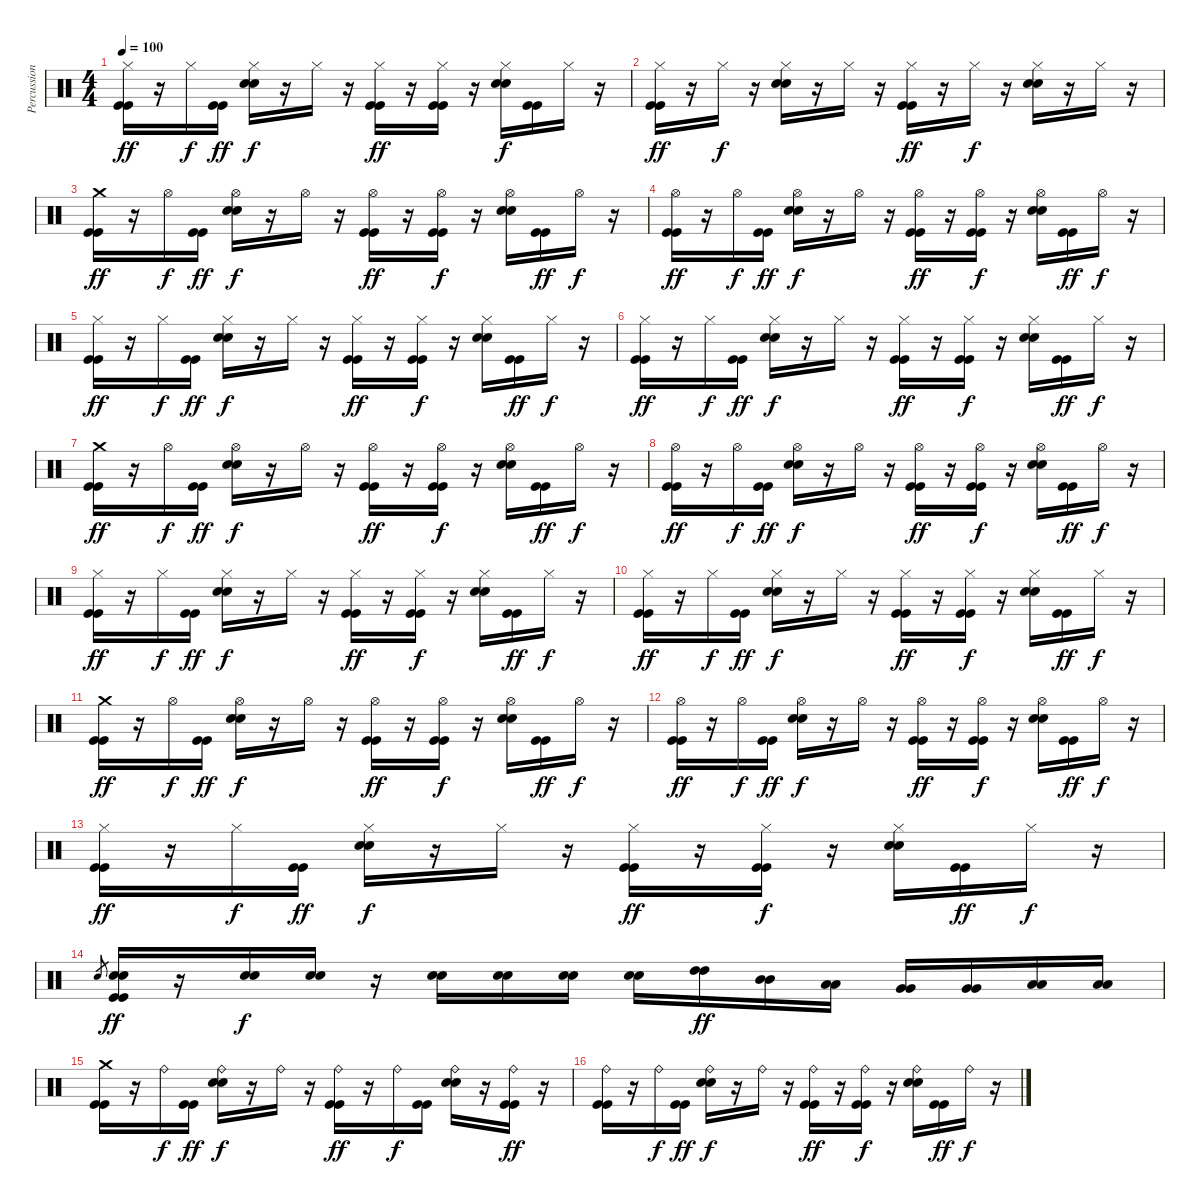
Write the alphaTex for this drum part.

\track ("Percussions" "Percussion") {instrument percussion}
\staff {score}
\articulation defaults
\ts (4 4)
\tempo 100
\clef neutral
\ks c
("Hi-Hat (closed)" "Kick (hit)" "Kick (hit)").16{dy ff} r.16 "Hi-Hat (closed)".16{dy f} ("Kick (hit)" "Kick (hit)").16{dy ff} ("Hi-Hat (closed)" "Electric Snare (hit)" "Electric Snare (hit)").16{dy f} r.16 "Hi-Hat (closed)".16 r.16 ("Hi-Hat (closed)" "Kick (hit)" "Kick (hit)").16{dy ff} r.16 ("Hi-Hat (closed)" "Kick (hit)" "Kick (hit)").16 r.16 ("Hi-Hat (closed)" "Electric Snare (hit)" "Electric Snare (hit)").16{dy f} ("Kick (hit)" "Kick (hit)").16 "Hi-Hat (closed)".16 r.16 |
("Hi-Hat (closed)" "Kick (hit)" "Kick (hit)").16{dy ff} r.16 "Hi-Hat (closed)".16{dy f} r.16 ("Hi-Hat (closed)" "Electric Snare (hit)" "Electric Snare (hit)").16 r.16 "Hi-Hat (closed)".16 r.16 ("Hi-Hat (closed)" "Kick (hit)" "Kick (hit)").16{dy ff} r.16 "Hi-Hat (closed)".16{dy f} r.16 ("Hi-Hat (closed)" "Electric Snare (hit)" "Electric Snare (hit)").16 r.16 "Hi-Hat (closed)".16 r.16 |
("Crash medium (hit)" "Kick (hit)" "Kick (hit)").16{dy ff} r.16 "Hi-Hat (open)".16{dy f} ("Kick (hit)" "Kick (hit)").16{dy ff} ("Hi-Hat (open)" "Electric Snare (hit)" "Electric Snare (hit)").16{dy f} r.16 "Hi-Hat (open)".16 r.16 ("Hi-Hat (open)" "Kick (hit)" "Kick (hit)").16{dy ff} r.16 ("Hi-Hat (open)" "Kick (hit)" "Kick (hit)").16{dy f} r.16 ("Hi-Hat (open)" "Electric Snare (hit)" "Electric Snare (hit)").16 ("Kick (hit)" "Kick (hit)").16{dy ff} "Hi-Hat (open)".16{dy f} r.16 |
("Hi-Hat (open)" "Kick (hit)" "Kick (hit)").16{dy ff} r.16 "Hi-Hat (open)".16{dy f} ("Kick (hit)" "Kick (hit)").16{dy ff} ("Hi-Hat (open)" "Electric Snare (hit)" "Electric Snare (hit)").16{dy f} r.16 "Hi-Hat (open)".16 r.16 ("Hi-Hat (open)" "Kick (hit)" "Kick (hit)").16{dy ff} r.16 ("Hi-Hat (open)" "Kick (hit)" "Kick (hit)").16{dy f} r.16 ("Hi-Hat (open)" "Electric Snare (hit)" "Electric Snare (hit)").16 ("Kick (hit)" "Kick (hit)").16{dy ff} "Hi-Hat (open)".16{dy f} r.16 |
("Hi-Hat (closed)" "Kick (hit)" "Kick (hit)").16{dy ff} r.16 "Hi-Hat (closed)".16{dy f} ("Kick (hit)" "Kick (hit)").16{dy ff} ("Hi-Hat (closed)" "Electric Snare (hit)" "Electric Snare (hit)").16{dy f} r.16 "Hi-Hat (closed)".16 r.16 ("Hi-Hat (closed)" "Kick (hit)" "Kick (hit)").16{dy ff} r.16 ("Hi-Hat (closed)" "Kick (hit)" "Kick (hit)").16{dy f} r.16 ("Hi-Hat (closed)" "Electric Snare (hit)" "Electric Snare (hit)").16 ("Kick (hit)" "Kick (hit)").16{dy ff} "Hi-Hat (closed)".16{dy f} r.16 |
("Hi-Hat (closed)" "Kick (hit)" "Kick (hit)").16{dy ff} r.16 "Hi-Hat (closed)".16{dy f} ("Kick (hit)" "Kick (hit)").16{dy ff} ("Hi-Hat (closed)" "Electric Snare (hit)" "Electric Snare (hit)").16{dy f} r.16 "Hi-Hat (closed)".16 r.16 ("Hi-Hat (closed)" "Kick (hit)" "Kick (hit)").16{dy ff} r.16 ("Hi-Hat (closed)" "Kick (hit)" "Kick (hit)").16{dy f} r.16 ("Hi-Hat (closed)" "Electric Snare (hit)" "Electric Snare (hit)").16 ("Kick (hit)" "Kick (hit)").16{dy ff} "Hi-Hat (closed)".16{dy f} r.16 |
("Crash medium (hit)" "Kick (hit)" "Kick (hit)").16{dy ff} r.16 "Hi-Hat (open)".16{dy f} ("Kick (hit)" "Kick (hit)").16{dy ff} ("Hi-Hat (open)" "Electric Snare (hit)" "Electric Snare (hit)").16{dy f} r.16 "Hi-Hat (open)".16 r.16 ("Hi-Hat (open)" "Kick (hit)" "Kick (hit)").16{dy ff} r.16 ("Hi-Hat (open)" "Kick (hit)" "Kick (hit)").16{dy f} r.16 ("Hi-Hat (open)" "Electric Snare (hit)" "Electric Snare (hit)").16 ("Kick (hit)" "Kick (hit)").16{dy ff} "Hi-Hat (open)".16{dy f} r.16 |
("Hi-Hat (open)" "Kick (hit)" "Kick (hit)").16{dy ff} r.16 "Hi-Hat (open)".16{dy f} ("Kick (hit)" "Kick (hit)").16{dy ff} ("Hi-Hat (open)" "Electric Snare (hit)" "Electric Snare (hit)").16{dy f} r.16 "Hi-Hat (open)".16 r.16 ("Hi-Hat (open)" "Kick (hit)" "Kick (hit)").16{dy ff} r.16 ("Hi-Hat (open)" "Kick (hit)" "Kick (hit)").16{dy f} r.16 ("Hi-Hat (open)" "Electric Snare (hit)" "Electric Snare (hit)").16 ("Kick (hit)" "Kick (hit)").16{dy ff} "Hi-Hat (open)".16{dy f} r.16 |
("Hi-Hat (closed)" "Kick (hit)" "Kick (hit)").16{dy ff} r.16 "Hi-Hat (closed)".16{dy f} ("Kick (hit)" "Kick (hit)").16{dy ff} ("Hi-Hat (closed)" "Electric Snare (hit)" "Electric Snare (hit)").16{dy f} r.16 "Hi-Hat (closed)".16 r.16 ("Hi-Hat (closed)" "Kick (hit)" "Kick (hit)").16{dy ff} r.16 ("Hi-Hat (closed)" "Kick (hit)" "Kick (hit)").16{dy f} r.16 ("Hi-Hat (closed)" "Electric Snare (hit)" "Electric Snare (hit)").16 ("Kick (hit)" "Kick (hit)").16{dy ff} "Hi-Hat (closed)".16{dy f} r.16 |
("Hi-Hat (closed)" "Kick (hit)" "Kick (hit)").16{dy ff} r.16 "Hi-Hat (closed)".16{dy f} ("Kick (hit)" "Kick (hit)").16{dy ff} ("Hi-Hat (closed)" "Electric Snare (hit)" "Electric Snare (hit)").16{dy f} r.16 "Hi-Hat (closed)".16 r.16 ("Hi-Hat (closed)" "Kick (hit)" "Kick (hit)").16{dy ff} r.16 ("Hi-Hat (closed)" "Kick (hit)" "Kick (hit)").16{dy f} r.16 ("Hi-Hat (closed)" "Electric Snare (hit)" "Electric Snare (hit)").16 ("Kick (hit)" "Kick (hit)").16{dy ff} "Hi-Hat (closed)".16{dy f} r.16 |
("Crash medium (hit)" "Kick (hit)" "Kick (hit)").16{dy ff} r.16 "Hi-Hat (open)".16{dy f} ("Kick (hit)" "Kick (hit)").16{dy ff} ("Hi-Hat (open)" "Electric Snare (hit)" "Electric Snare (hit)").16{dy f} r.16 "Hi-Hat (open)".16 r.16 ("Hi-Hat (open)" "Kick (hit)" "Kick (hit)").16{dy ff} r.16 ("Hi-Hat (open)" "Kick (hit)" "Kick (hit)").16{dy f} r.16 ("Hi-Hat (open)" "Electric Snare (hit)" "Electric Snare (hit)").16 ("Kick (hit)" "Kick (hit)").16{dy ff} "Hi-Hat (open)".16{dy f} r.16 |
("Hi-Hat (open)" "Kick (hit)" "Kick (hit)").16{dy ff} r.16 "Hi-Hat (open)".16{dy f} ("Kick (hit)" "Kick (hit)").16{dy ff} ("Hi-Hat (open)" "Electric Snare (hit)" "Electric Snare (hit)").16{dy f} r.16 "Hi-Hat (open)".16 r.16 ("Hi-Hat (open)" "Kick (hit)" "Kick (hit)").16{dy ff} r.16 ("Hi-Hat (open)" "Kick (hit)" "Kick (hit)").16{dy f} r.16 ("Hi-Hat (open)" "Electric Snare (hit)" "Electric Snare (hit)").16 ("Kick (hit)" "Kick (hit)").16{dy ff} "Hi-Hat (open)".16{dy f} r.16 |
("Hi-Hat (closed)" "Kick (hit)" "Kick (hit)").16{dy ff} r.16 "Hi-Hat (closed)".16{dy f} ("Kick (hit)" "Kick (hit)").16{dy ff} ("Hi-Hat (closed)" "Electric Snare (hit)" "Electric Snare (hit)").16{dy f} r.16 "Hi-Hat (closed)".16 r.16 ("Hi-Hat (closed)" "Kick (hit)" "Kick (hit)").16{dy ff} r.16 ("Hi-Hat (closed)" "Kick (hit)" "Kick (hit)").16{dy f} r.16 ("Hi-Hat (closed)" "Electric Snare (hit)" "Electric Snare (hit)").16 ("Kick (hit)" "Kick (hit)").16{dy ff} "Hi-Hat (closed)".16{dy f} r.16 |
"Electric Snare (hit)".8{gr} ("Electric Snare (hit)" "Electric Snare (hit)" "Kick (hit)" "Kick (hit)").16{dy ff} r.16 ("Electric Snare (hit)" "Electric Snare (hit)").16{dy f} ("Electric Snare (hit)" "Electric Snare (hit)").16 r.16 ("Electric Snare (hit)" "Electric Snare (hit)").16 ("Electric Snare (hit)" "Electric Snare (hit)").16 ("Electric Snare (hit)" "Electric Snare (hit)").16 ("Electric Snare (hit)" "Electric Snare (hit)").16 ("High Tom (hit)" "High Tom (hit)").16{dy ff} ("Mid Tom (hit)" "Mid Tom (hit)").16 ("Low Tom (hit)" "Low Tom (hit)").16 ("Very Low Tom (hit)" "Very Low Tom (hit)").16 ("Very Low Tom (hit)" "Very Low Tom (hit)").16 ("Low Floor Tom (hit)" "Low Floor Tom (hit)").16 ("Low Floor Tom (hit)" "Low Floor Tom (hit)").16 |
("Crash medium (hit)" "Kick (hit)" "Kick (hit)").16 r.16 "Ride (bell)".16{dy f} ("Kick (hit)" "Kick (hit)").16{dy ff} ("Ride (bell)" "Electric Snare (hit)" "Electric Snare (hit)").16{dy f} r.16 "Ride (bell)".16 r.16 ("Ride (bell)" "Kick (hit)" "Kick (hit)").16{dy ff} r.16 "Ride (bell)".16{dy f} ("Kick (hit)" "Kick (hit)").16 ("Ride (bell)" "Electric Snare (hit)" "Electric Snare (hit)").16 r.16 ("Ride (bell)" "Kick (hit)" "Kick (hit)").16{dy ff} r.16 |
("Ride (bell)" "Kick (hit)" "Kick (hit)").16 r.16 "Ride (bell)".16{dy f} ("Kick (hit)" "Kick (hit)").16{dy ff} ("Ride (bell)" "Electric Snare (hit)" "Electric Snare (hit)").16{dy f} r.16 "Ride (bell)".16 r.16 ("Ride (bell)" "Kick (hit)" "Kick (hit)").16{dy ff} r.16 ("Ride (bell)" "Kick (hit)" "Kick (hit)").16{dy f} r.16 ("Ride (bell)" "Electric Snare (hit)" "Electric Snare (hit)").16 ("Kick (hit)" "Kick (hit)").16{dy ff} "Ride (bell)".16{dy f} r.16
